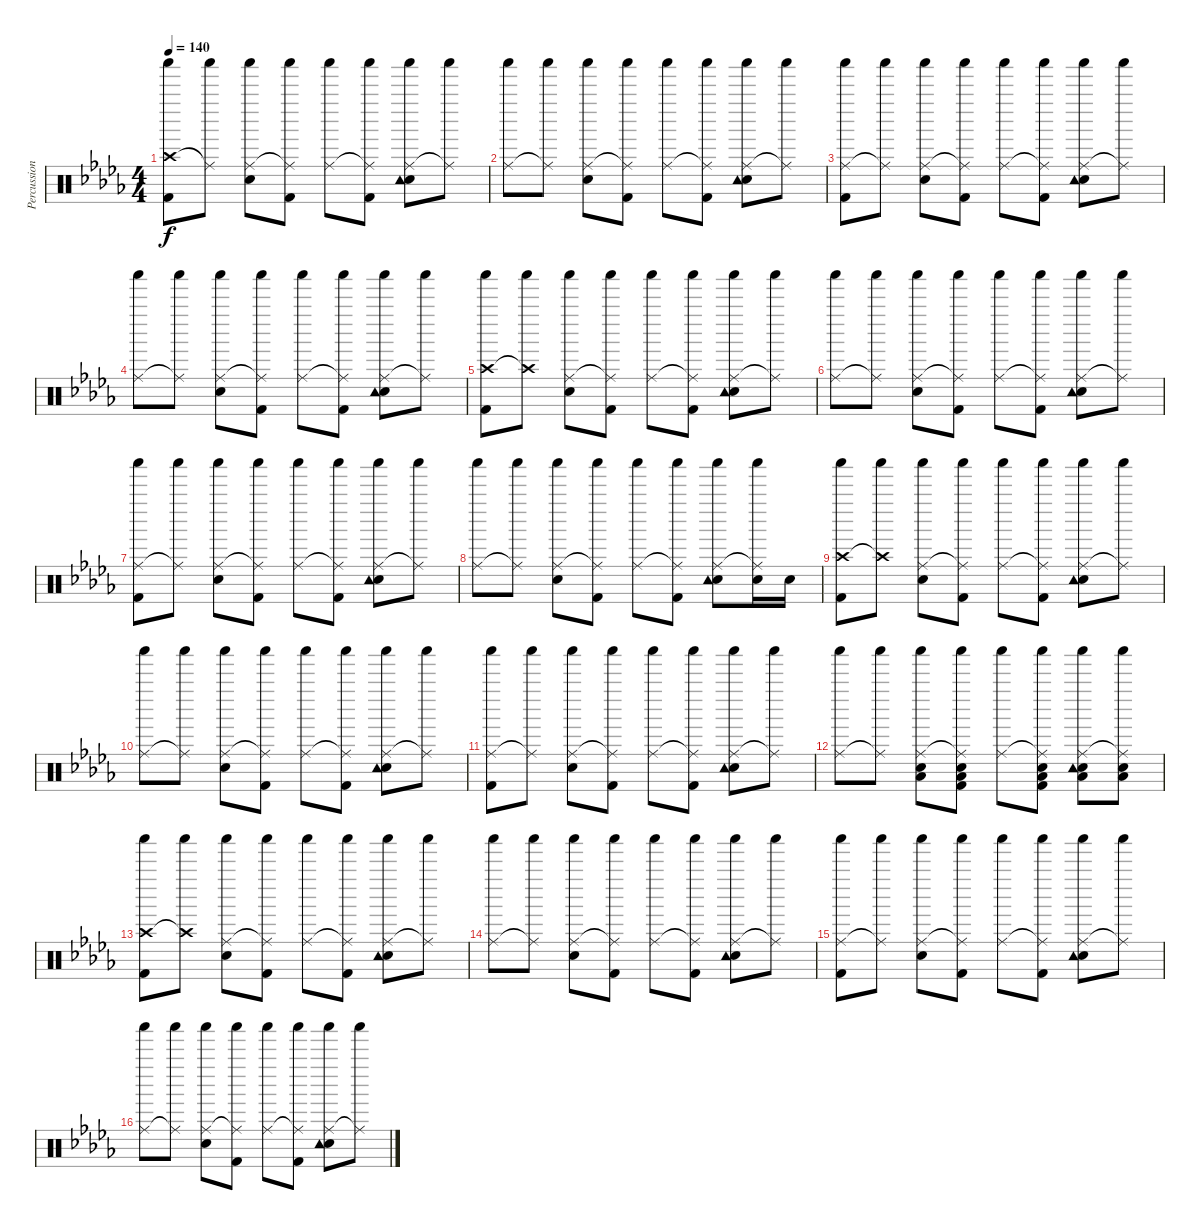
\track ("Percussion" "Percussion") {instrument percussion}
\staff {score}
\articulation defaults
\ts (4 4)
\tempo 140
\clef neutral
\ks db
("Crash high (hit)" "Shaker (hit)" "Kick (hit) 2").8{dy f} ("Ride (middle)"{t} "Shaker (hit)").8 ("Ride (middle)" "Shaker (hit)" "Snare (hit) 2").8 ("Ride (middle)"{t} "Shaker (hit)" "Kick (hit) 2").8 ("Ride (middle)" "Shaker (hit)").8 ("Ride (middle)"{t} "Shaker (hit)" "Kick (hit) 2").8 ("Ride (middle)" "Shaker (hit)" "Snare (hit) 2" "Tambourine (hit)").8 ("Ride (middle)"{t} "Shaker (hit)").8 |
("Ride (middle)" "Shaker (hit)").8 ("Ride (middle)"{t} "Shaker (hit)").8 ("Ride (middle)" "Shaker (hit)" "Snare (hit) 2").8 ("Ride (middle)"{t} "Shaker (hit)" "Kick (hit) 2").8 ("Ride (middle)" "Shaker (hit)").8 ("Ride (middle)"{t} "Shaker (hit)" "Kick (hit) 2").8 ("Ride (middle)" "Shaker (hit)" "Snare (hit) 2" "Tambourine (hit)").8 ("Ride (middle)"{t} "Shaker (hit)").8 |
("Ride (middle)" "Shaker (hit)" "Kick (hit) 2").8 ("Ride (middle)"{t} "Shaker (hit)").8 ("Ride (middle)" "Shaker (hit)" "Snare (hit) 2").8 ("Ride (middle)"{t} "Shaker (hit)" "Kick (hit) 2").8 ("Ride (middle)" "Shaker (hit)").8 ("Ride (middle)"{t} "Shaker (hit)" "Kick (hit) 2").8 ("Ride (middle)" "Shaker (hit)" "Snare (hit) 2" "Tambourine (hit)").8 ("Ride (middle)"{t} "Shaker (hit)").8 |
("Ride (middle)" "Shaker (hit)").8 ("Ride (middle)"{t} "Shaker (hit)").8 ("Ride (middle)" "Shaker (hit)" "Snare (hit) 2").8 ("Ride (middle)"{t} "Shaker (hit)" "Kick (hit) 2").8 ("Ride (middle)" "Shaker (hit)").8 ("Ride (middle)"{t} "Shaker (hit)" "Kick (hit) 2").8 ("Ride (middle)" "Shaker (hit)" "Snare (hit) 2" "Tambourine (hit)").8 ("Ride (middle)"{t} "Shaker (hit)").8 |
("Crash high (hit)" "Shaker (hit)" "Kick (hit) 2").8 ("Crash high (hit)"{t} "Shaker (hit)").8 ("Ride (middle)" "Shaker (hit)" "Snare (hit) 2").8 ("Ride (middle)"{t} "Shaker (hit)" "Kick (hit) 2").8 ("Ride (middle)" "Shaker (hit)").8 ("Ride (middle)"{t} "Shaker (hit)" "Kick (hit) 2").8 ("Ride (middle)" "Shaker (hit)" "Snare (hit) 2" "Tambourine (hit)").8 ("Ride (middle)"{t} "Shaker (hit)").8 |
("Ride (middle)" "Shaker (hit)").8 ("Ride (middle)"{t} "Shaker (hit)").8 ("Ride (middle)" "Shaker (hit)" "Snare (hit) 2").8 ("Ride (middle)"{t} "Shaker (hit)" "Kick (hit) 2").8 ("Ride (middle)" "Shaker (hit)").8 ("Ride (middle)"{t} "Shaker (hit)" "Kick (hit) 2").8 ("Ride (middle)" "Shaker (hit)" "Snare (hit) 2" "Tambourine (hit)").8 ("Ride (middle)"{t} "Shaker (hit)").8 |
("Ride (middle)" "Shaker (hit)" "Kick (hit) 2").8 ("Ride (middle)"{t} "Shaker (hit)").8 ("Ride (middle)" "Shaker (hit)" "Snare (hit) 2").8 ("Ride (middle)"{t} "Shaker (hit)" "Kick (hit) 2").8 ("Ride (middle)" "Shaker (hit)").8 ("Ride (middle)"{t} "Shaker (hit)" "Kick (hit) 2").8 ("Ride (middle)" "Shaker (hit)" "Snare (hit) 2" "Tambourine (hit)").8 ("Ride (middle)"{t} "Shaker (hit)").8 |
("Ride (middle)" "Shaker (hit)").8 ("Ride (middle)"{t} "Shaker (hit)").8 ("Ride (middle)" "Shaker (hit)" "Snare (hit) 2").8 ("Ride (middle)"{t} "Shaker (hit)" "Kick (hit) 2").8 ("Ride (middle)" "Shaker (hit)").8 ("Ride (middle)"{t} "Shaker (hit)" "Kick (hit) 2").8 ("Ride (middle)" "Shaker (hit)" "Snare (hit) 2" "Tambourine (hit)").8 ("Ride (middle)"{t} "Shaker (hit)" "Snare (hit) 2").16 "Snare (hit) 2".16 |
("Crash high (hit)" "Shaker (hit)" "Kick (hit) 2").8 ("Crash high (hit)"{t} "Shaker (hit)").8 ("Ride (middle)" "Shaker (hit)" "Snare (hit) 2").8 ("Ride (middle)"{t} "Shaker (hit)" "Kick (hit) 2").8 ("Ride (middle)" "Shaker (hit)").8 ("Ride (middle)"{t} "Shaker (hit)" "Kick (hit) 2").8 ("Ride (middle)" "Shaker (hit)" "Snare (hit) 2" "Tambourine (hit)").8 ("Ride (middle)"{t} "Shaker (hit)").8 |
("Ride (middle)" "Shaker (hit)").8 ("Ride (middle)"{t} "Shaker (hit)").8 ("Ride (middle)" "Shaker (hit)" "Snare (hit) 2").8 ("Ride (middle)"{t} "Shaker (hit)" "Kick (hit) 2").8 ("Ride (middle)" "Shaker (hit)").8 ("Ride (middle)"{t} "Shaker (hit)" "Kick (hit) 2").8 ("Ride (middle)" "Shaker (hit)" "Snare (hit) 2" "Tambourine (hit)").8 ("Ride (middle)"{t} "Shaker (hit)").8 |
("Ride (middle)" "Shaker (hit)" "Kick (hit) 2").8 ("Ride (middle)"{t} "Shaker (hit)").8 ("Ride (middle)" "Shaker (hit)" "Snare (hit) 2").8 ("Ride (middle)"{t} "Shaker (hit)" "Kick (hit) 2").8 ("Ride (middle)" "Shaker (hit)").8 ("Ride (middle)"{t} "Shaker (hit)" "Kick (hit) 2").8 ("Ride (middle)" "Shaker (hit)" "Snare (hit) 2" "Tambourine (hit)").8 ("Ride (middle)"{t} "Shaker (hit)").8 |
("Ride (middle)" "Shaker (hit)").8 ("Ride (middle)"{t} "Shaker (hit)").8 ("Ride (middle)" "Shaker (hit)" "Snare (hit) 2" "Low Floor Tom (hit)").8 ("Ride (middle)"{t} "Shaker (hit)" "Snare (hit) 2" "Low Floor Tom (hit)" "Kick (hit) 2").8 ("Ride (middle)" "Shaker (hit)").8 ("Ride (middle)"{t} "Shaker (hit)" "Snare (hit) 2" "Low Floor Tom (hit)" "Kick (hit) 2").8 ("Ride (middle)" "Shaker (hit)" "Snare (hit) 2" "Tambourine (hit)" "Low Floor Tom (hit)").8 ("Ride (middle)"{t} "Shaker (hit)" "Snare (hit) 2" "Low Floor Tom (hit)").8 |
("Crash high (hit)" "Shaker (hit)" "Kick (hit) 2").8 ("Crash high (hit)"{t} "Shaker (hit)").8 ("Ride (middle)" "Shaker (hit)" "Snare (hit) 2").8 ("Ride (middle)"{t} "Shaker (hit)" "Kick (hit) 2").8 ("Ride (middle)" "Shaker (hit)").8 ("Ride (middle)"{t} "Shaker (hit)" "Kick (hit) 2").8 ("Ride (middle)" "Shaker (hit)" "Snare (hit) 2" "Tambourine (hit)").8 ("Ride (middle)"{t} "Shaker (hit)").8 |
("Ride (middle)" "Shaker (hit)").8 ("Ride (middle)"{t} "Shaker (hit)").8 ("Ride (middle)" "Shaker (hit)" "Snare (hit) 2").8 ("Ride (middle)"{t} "Shaker (hit)" "Kick (hit) 2").8 ("Ride (middle)" "Shaker (hit)").8 ("Ride (middle)"{t} "Shaker (hit)" "Kick (hit) 2").8 ("Ride (middle)" "Shaker (hit)" "Snare (hit) 2" "Tambourine (hit)").8 ("Ride (middle)"{t} "Shaker (hit)").8 |
("Ride (middle)" "Shaker (hit)" "Kick (hit) 2").8 ("Ride (middle)"{t} "Shaker (hit)").8 ("Ride (middle)" "Shaker (hit)" "Snare (hit) 2").8 ("Ride (middle)"{t} "Shaker (hit)" "Kick (hit) 2").8 ("Ride (middle)" "Shaker (hit)").8 ("Ride (middle)"{t} "Shaker (hit)" "Kick (hit) 2").8 ("Ride (middle)" "Shaker (hit)" "Snare (hit) 2" "Tambourine (hit)").8 ("Ride (middle)"{t} "Shaker (hit)").8 |
("Ride (middle)" "Shaker (hit)").8 ("Ride (middle)"{t} "Shaker (hit)").8 ("Ride (middle)" "Shaker (hit)" "Snare (hit) 2").8 ("Ride (middle)"{t} "Shaker (hit)" "Kick (hit) 2").8 ("Ride (middle)" "Shaker (hit)").8 ("Ride (middle)"{t} "Shaker (hit)" "Kick (hit) 2").8 ("Ride (middle)" "Shaker (hit)" "Snare (hit) 2" "Tambourine (hit)").8 ("Ride (middle)"{t} "Shaker (hit)").8
